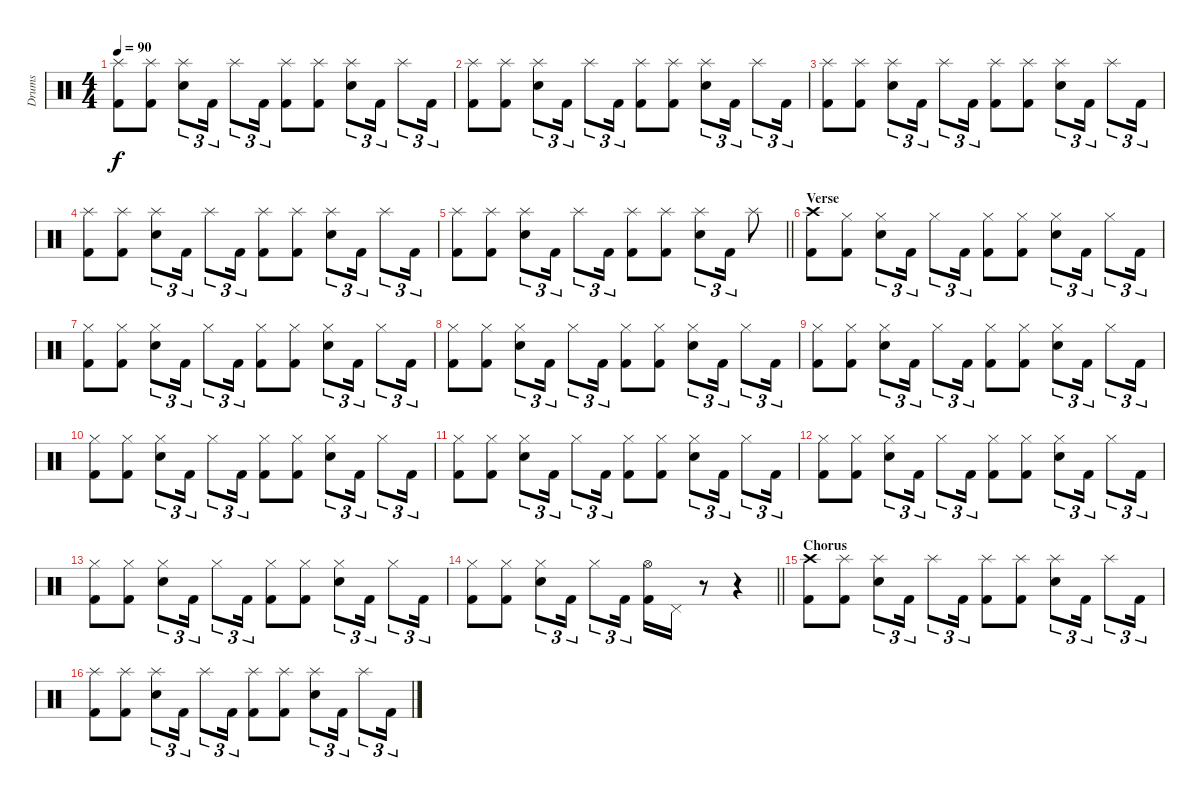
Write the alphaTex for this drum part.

\track ("Drums" "Drums") {instrument percussion}
\staff {score}
\articulation defaults
\ts (4 4)
\tempo 90
\clef neutral
\ks c
("Splash (hit)" "Kick (hit) 2").8{dy f} ("Splash (hit)" "Kick (hit) 2").8 ("Splash (hit)" "Electric Snare (hit)").8{tu (3 2)} "Kick (hit) 2".16{tu (3 2)} "Splash (hit)".8{tu (3 2)} "Kick (hit) 2".16{tu (3 2)} ("Splash (hit)" "Kick (hit) 2").8 ("Splash (hit)" "Kick (hit) 2").8 ("Splash (hit)" "Electric Snare (hit)").8{tu (3 2)} "Kick (hit) 2".16{tu (3 2)} "Splash (hit)".8{tu (3 2)} "Kick (hit) 2".16{tu (3 2)} |
("Splash (hit)" "Kick (hit) 2").8 ("Splash (hit)" "Kick (hit) 2").8 ("Splash (hit)" "Electric Snare (hit)").8{tu (3 2)} "Kick (hit) 2".16{tu (3 2)} "Splash (hit)".8{tu (3 2)} "Kick (hit) 2".16{tu (3 2)} ("Splash (hit)" "Kick (hit) 2").8 ("Splash (hit)" "Kick (hit) 2").8 ("Splash (hit)" "Electric Snare (hit)").8{tu (3 2)} "Kick (hit) 2".16{tu (3 2)} "Splash (hit)".8{tu (3 2)} "Kick (hit) 2".16{tu (3 2)} |
("Splash (hit)" "Kick (hit) 2").8 ("Splash (hit)" "Kick (hit) 2").8 ("Splash (hit)" "Electric Snare (hit)").8{tu (3 2)} "Kick (hit) 2".16{tu (3 2)} "Splash (hit)".8{tu (3 2)} "Kick (hit) 2".16{tu (3 2)} ("Splash (hit)" "Kick (hit) 2").8 ("Splash (hit)" "Kick (hit) 2").8 ("Splash (hit)" "Electric Snare (hit)").8{tu (3 2)} "Kick (hit) 2".16{tu (3 2)} "Splash (hit)".8{tu (3 2)} "Kick (hit) 2".16{tu (3 2)} |
("Splash (hit)" "Kick (hit) 2").8 ("Splash (hit)" "Kick (hit) 2").8 ("Splash (hit)" "Electric Snare (hit)").8{tu (3 2)} "Kick (hit) 2".16{tu (3 2)} "Splash (hit)".8{tu (3 2)} "Kick (hit) 2".16{tu (3 2)} ("Splash (hit)" "Kick (hit) 2").8 ("Splash (hit)" "Kick (hit) 2").8 ("Splash (hit)" "Electric Snare (hit)").8{tu (3 2)} "Kick (hit) 2".16{tu (3 2)} "Splash (hit)".8{tu (3 2)} "Kick (hit) 2".16{tu (3 2)} |
\barLineRight lightlight
("Splash (hit)" "Kick (hit) 2").8 ("Splash (hit)" "Kick (hit) 2").8 ("Splash (hit)" "Electric Snare (hit)").8{tu (3 2)} "Kick (hit) 2".16{tu (3 2)} "Splash (hit)".8{tu (3 2)} "Kick (hit) 2".16{tu (3 2)} ("Splash (hit)" "Kick (hit) 2").8 ("Splash (hit)" "Kick (hit) 2").8 ("Splash (hit)" "Electric Snare (hit)").8{tu (3 2)} "Kick (hit) 2".16{tu (3 2)} "Splash (hit)".8 |
\section ("" "Verse")
("Crash high (hit)" "Kick (hit) 2").8 ("Hi-Hat (closed)" "Kick (hit) 2").8 ("Hi-Hat (closed)" "Electric Snare (hit)").8{tu (3 2)} "Kick (hit) 2".16{tu (3 2)} "Hi-Hat (closed)".8{tu (3 2)} "Kick (hit) 2".16{tu (3 2)} ("Hi-Hat (closed)" "Kick (hit) 2").8 ("Hi-Hat (closed)" "Kick (hit) 2").8 ("Hi-Hat (closed)" "Electric Snare (hit)").8{tu (3 2)} "Kick (hit) 2".16{tu (3 2)} "Hi-Hat (closed)".8{tu (3 2)} "Kick (hit) 2".16{tu (3 2)} |
("Hi-Hat (closed)" "Kick (hit) 2").8 ("Hi-Hat (closed)" "Kick (hit) 2").8 ("Hi-Hat (closed)" "Electric Snare (hit)").8{tu (3 2)} "Kick (hit) 2".16{tu (3 2)} "Hi-Hat (closed)".8{tu (3 2)} "Kick (hit) 2".16{tu (3 2)} ("Hi-Hat (closed)" "Kick (hit) 2").8 ("Hi-Hat (closed)" "Kick (hit) 2").8 ("Hi-Hat (closed)" "Electric Snare (hit)").8{tu (3 2)} "Kick (hit) 2".16{tu (3 2)} "Hi-Hat (closed)".8{tu (3 2)} "Kick (hit) 2".16{tu (3 2)} |
("Hi-Hat (closed)" "Kick (hit) 2").8 ("Hi-Hat (closed)" "Kick (hit) 2").8 ("Hi-Hat (closed)" "Electric Snare (hit)").8{tu (3 2)} "Kick (hit) 2".16{tu (3 2)} "Hi-Hat (closed)".8{tu (3 2)} "Kick (hit) 2".16{tu (3 2)} ("Hi-Hat (closed)" "Kick (hit) 2").8 ("Hi-Hat (closed)" "Kick (hit) 2").8 ("Hi-Hat (closed)" "Electric Snare (hit)").8{tu (3 2)} "Kick (hit) 2".16{tu (3 2)} "Hi-Hat (closed)".8{tu (3 2)} "Kick (hit) 2".16{tu (3 2)} |
("Hi-Hat (closed)" "Kick (hit) 2").8 ("Hi-Hat (closed)" "Kick (hit) 2").8 ("Hi-Hat (closed)" "Electric Snare (hit)").8{tu (3 2)} "Kick (hit) 2".16{tu (3 2)} "Hi-Hat (closed)".8{tu (3 2)} "Kick (hit) 2".16{tu (3 2)} ("Hi-Hat (closed)" "Kick (hit) 2").8 ("Hi-Hat (closed)" "Kick (hit) 2").8 ("Hi-Hat (closed)" "Electric Snare (hit)").8{tu (3 2)} "Kick (hit) 2".16{tu (3 2)} "Hi-Hat (closed)".8{tu (3 2)} "Kick (hit) 2".16{tu (3 2)} |
("Hi-Hat (closed)" "Kick (hit) 2").8 ("Hi-Hat (closed)" "Kick (hit) 2").8 ("Hi-Hat (closed)" "Electric Snare (hit)").8{tu (3 2)} "Kick (hit) 2".16{tu (3 2)} "Hi-Hat (closed)".8{tu (3 2)} "Kick (hit) 2".16{tu (3 2)} ("Hi-Hat (closed)" "Kick (hit) 2").8 ("Hi-Hat (closed)" "Kick (hit) 2").8 ("Hi-Hat (closed)" "Electric Snare (hit)").8{tu (3 2)} "Kick (hit) 2".16{tu (3 2)} "Hi-Hat (closed)".8{tu (3 2)} "Kick (hit) 2".16{tu (3 2)} |
("Hi-Hat (closed)" "Kick (hit) 2").8 ("Hi-Hat (closed)" "Kick (hit) 2").8 ("Hi-Hat (closed)" "Electric Snare (hit)").8{tu (3 2)} "Kick (hit) 2".16{tu (3 2)} "Hi-Hat (closed)".8{tu (3 2)} "Kick (hit) 2".16{tu (3 2)} ("Hi-Hat (closed)" "Kick (hit) 2").8 ("Hi-Hat (closed)" "Kick (hit) 2").8 ("Hi-Hat (closed)" "Electric Snare (hit)").8{tu (3 2)} "Kick (hit) 2".16{tu (3 2)} "Hi-Hat (closed)".8{tu (3 2)} "Kick (hit) 2".16{tu (3 2)} |
("Hi-Hat (closed)" "Kick (hit) 2").8 ("Hi-Hat (closed)" "Kick (hit) 2").8 ("Hi-Hat (closed)" "Electric Snare (hit)").8{tu (3 2)} "Kick (hit) 2".16{tu (3 2)} "Hi-Hat (closed)".8{tu (3 2)} "Kick (hit) 2".16{tu (3 2)} ("Hi-Hat (closed)" "Kick (hit) 2").8 ("Hi-Hat (closed)" "Kick (hit) 2").8 ("Hi-Hat (closed)" "Electric Snare (hit)").8{tu (3 2)} "Kick (hit) 2".16{tu (3 2)} "Hi-Hat (closed)".8{tu (3 2)} "Kick (hit) 2".16{tu (3 2)} |
("Hi-Hat (closed)" "Kick (hit) 2").8 ("Hi-Hat (closed)" "Kick (hit) 2").8 ("Hi-Hat (closed)" "Electric Snare (hit)").8{tu (3 2)} "Kick (hit) 2".16{tu (3 2)} "Hi-Hat (closed)".8{tu (3 2)} "Kick (hit) 2".16{tu (3 2)} ("Hi-Hat (closed)" "Kick (hit) 2").8 ("Hi-Hat (closed)" "Kick (hit) 2").8 ("Hi-Hat (closed)" "Electric Snare (hit)").8{tu (3 2)} "Kick (hit) 2".16{tu (3 2)} "Hi-Hat (closed)".8{tu (3 2)} "Kick (hit) 2".16{tu (3 2)} |
\barLineRight lightlight
("Hi-Hat (closed)" "Kick (hit) 2").8 ("Hi-Hat (closed)" "Kick (hit) 2").8 ("Hi-Hat (closed)" "Electric Snare (hit)").8{tu (3 2)} "Kick (hit) 2".16{tu (3 2)} "Hi-Hat (closed)".8{tu (3 2)} "Kick (hit) 2".16{tu (3 2)} ("Hi-Hat (open)" "Kick (hit) 2").16 "Pedal Hi-Hat (hit)".16 r.8 r.4 |
\section ("" "Chorus")
("Crash high (hit)" "Kick (hit) 2").8 ("Splash (hit)" "Kick (hit) 2").8 ("Splash (hit)" "Electric Snare (hit)").8{tu (3 2)} "Kick (hit) 2".16{tu (3 2)} "Splash (hit)".8{tu (3 2)} "Kick (hit) 2".16{tu (3 2)} ("Splash (hit)" "Kick (hit) 2").8 ("Splash (hit)" "Kick (hit) 2").8 ("Splash (hit)" "Electric Snare (hit)").8{tu (3 2)} "Kick (hit) 2".16{tu (3 2)} "Splash (hit)".8{tu (3 2)} "Kick (hit) 2".16{tu (3 2)} |
("Splash (hit)" "Kick (hit) 2").8 ("Splash (hit)" "Kick (hit) 2").8 ("Splash (hit)" "Electric Snare (hit)").8{tu (3 2)} "Kick (hit) 2".16{tu (3 2)} "Splash (hit)".8{tu (3 2)} "Kick (hit) 2".16{tu (3 2)} ("Splash (hit)" "Kick (hit) 2").8 ("Splash (hit)" "Kick (hit) 2").8 ("Splash (hit)" "Electric Snare (hit)").8{tu (3 2)} "Kick (hit) 2".16{tu (3 2)} "Splash (hit)".8{tu (3 2)} "Kick (hit) 2".16{tu (3 2)}
